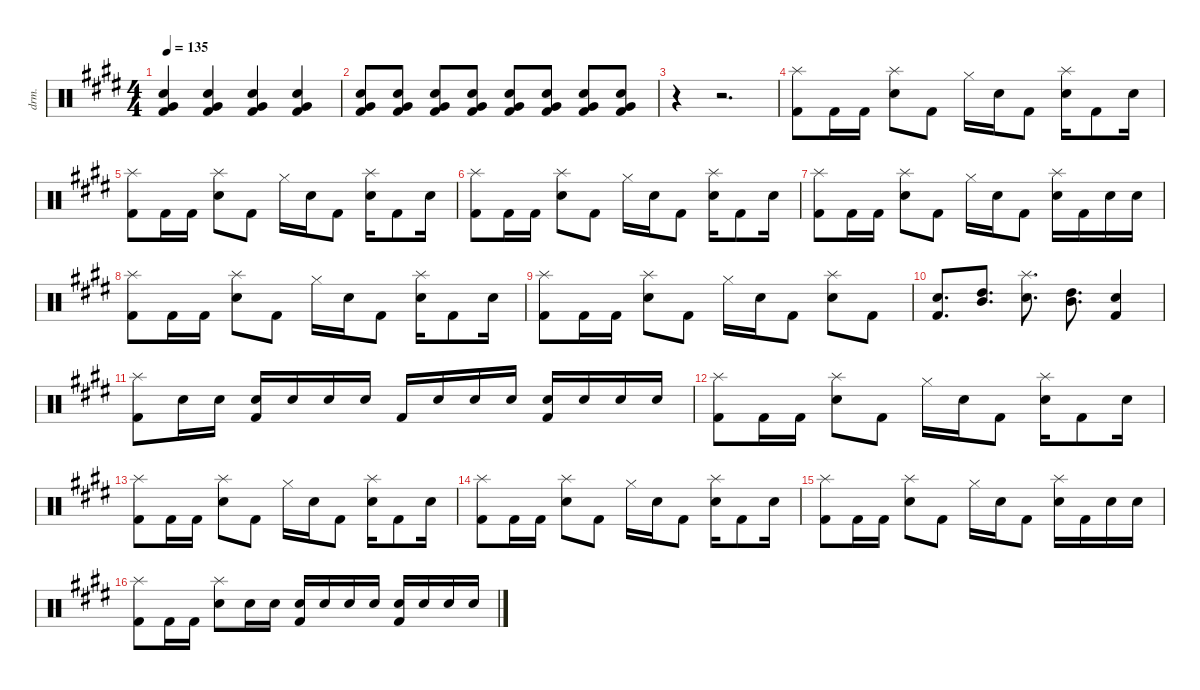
\defaultSystemsLayout 4
\hideDynamics
\bracketExtendMode nobrackets
\track ("Drumkit" "drm.") {instrument percussion}
\staff {score}
\articulation defaults
\ts (4 4)
\tempo 135
\clef neutral
\ks e
("Snare (hit) 2"{acc forcenatural} "Very Low Tom (hit)"{acc forcenatural} "Kick (hit) 2"{acc forcenatural}).4{dy mf} ("Snare (hit) 2"{acc forcenatural} "Very Low Tom (hit)"{acc forcenatural} "Kick (hit) 2"{acc forcenatural}).4 ("Snare (hit) 2"{acc forcenatural} "Very Low Tom (hit)"{acc forcenatural} "Kick (hit) 2"{acc forcenatural}).4 ("Snare (hit) 2"{acc forcenatural} "Very Low Tom (hit)"{acc forcenatural} "Kick (hit) 2"{acc forcenatural}).4 |
("Snare (hit) 2"{acc forcenatural} "Very Low Tom (hit)"{acc forcenatural} "Kick (hit) 2"{acc forcenatural}).8 ("Snare (hit) 2"{acc forcenatural} "Very Low Tom (hit)"{acc forcenatural} "Kick (hit) 2"{acc forcenatural}).8 ("Snare (hit) 2"{acc forcenatural} "Very Low Tom (hit)"{acc forcenatural} "Kick (hit) 2"{acc forcenatural}).8 ("Snare (hit) 2"{acc forcenatural} "Very Low Tom (hit)"{acc forcenatural} "Kick (hit) 2"{acc forcenatural}).8 ("Snare (hit) 2"{acc forcenatural} "Very Low Tom (hit)"{acc forcenatural} "Kick (hit) 2"{acc forcenatural}).8 ("Snare (hit) 2"{acc forcenatural} "Very Low Tom (hit)"{acc forcenatural} "Kick (hit) 2"{acc forcenatural}).8 ("Snare (hit) 2"{acc forcenatural} "Very Low Tom (hit)"{acc forcenatural} "Kick (hit) 2"{acc forcenatural}).8 ("Snare (hit) 2"{acc forcenatural} "Very Low Tom (hit)"{acc forcenatural} "Kick (hit) 2"{acc forcenatural}).8 |
r.4 r.2{d} |
("Kick (hit) 2"{acc forcenatural} "Splash (hit)"{acc forcenatural}).8 "Kick (hit) 2"{acc forcenatural}.16 "Kick (hit) 2"{acc forcenatural}.16 ("Splash (hit)"{acc forcenatural} "Snare (hit) 2"{acc forcenatural}).8 "Kick (hit) 2"{acc forcenatural}.8 "Hi-Hat (closed)"{acc forcenatural}.16 "Snare (hit) 2"{acc forcenatural}.16 "Kick (hit) 2"{acc forcenatural}.8 ("Splash (hit)"{acc forcenatural} "Snare (hit) 2"{acc forcenatural}).16 "Kick (hit) 2"{acc forcenatural}.8 "Snare (hit) 2"{acc forcenatural}.16 |
("Kick (hit) 2"{acc forcenatural} "Splash (hit)"{acc forcenatural}).8 "Kick (hit) 2"{acc forcenatural}.16 "Kick (hit) 2"{acc forcenatural}.16 ("Splash (hit)"{acc forcenatural} "Snare (hit) 2"{acc forcenatural}).8 "Kick (hit) 2"{acc forcenatural}.8 "Hi-Hat (closed)"{acc forcenatural}.16 "Snare (hit) 2"{acc forcenatural}.16 "Kick (hit) 2"{acc forcenatural}.8 ("Splash (hit)"{acc forcenatural} "Snare (hit) 2"{acc forcenatural}).16 "Kick (hit) 2"{acc forcenatural}.8 "Snare (hit) 2"{acc forcenatural}.16 |
("Kick (hit) 2"{acc forcenatural} "Splash (hit)"{acc forcenatural}).8 "Kick (hit) 2"{acc forcenatural}.16 "Kick (hit) 2"{acc forcenatural}.16 ("Splash (hit)"{acc forcenatural} "Snare (hit) 2"{acc forcenatural}).8 "Kick (hit) 2"{acc forcenatural}.8 "Hi-Hat (closed)"{acc forcenatural}.16 "Snare (hit) 2"{acc forcenatural}.16 "Kick (hit) 2"{acc forcenatural}.8 ("Splash (hit)"{acc forcenatural} "Snare (hit) 2"{acc forcenatural}).16 "Kick (hit) 2"{acc forcenatural}.8 "Snare (hit) 2"{acc forcenatural}.16 |
("Kick (hit) 2"{acc forcenatural} "Splash (hit)"{acc forcenatural}).8 "Kick (hit) 2"{acc forcenatural}.16 "Kick (hit) 2"{acc forcenatural}.16 ("Splash (hit)"{acc forcenatural} "Snare (hit) 2"{acc forcenatural}).8 "Kick (hit) 2"{acc forcenatural}.8 "Hi-Hat (closed)"{acc forcenatural}.16 "Snare (hit) 2"{acc forcenatural}.16 "Kick (hit) 2"{acc forcenatural}.8 ("Splash (hit)"{acc forcenatural} "Snare (hit) 2"{acc forcenatural}).16 "Kick (hit) 2"{acc forcenatural}.16 "Snare (hit) 2"{acc forcenatural}.16 "Snare (hit) 2"{acc forcenatural}.16 |
("Kick (hit) 2"{acc forcenatural} "Splash (hit)"{acc forcenatural}).8 "Kick (hit) 2"{acc forcenatural}.16 "Kick (hit) 2"{acc forcenatural}.16 ("Splash (hit)"{acc forcenatural} "Snare (hit) 2"{acc forcenatural}).8 "Kick (hit) 2"{acc forcenatural}.8 "Hi-Hat (closed)"{acc forcenatural}.16 "Snare (hit) 2"{acc forcenatural}.16 "Kick (hit) 2"{acc forcenatural}.8 ("Splash (hit)"{acc forcenatural} "Snare (hit) 2"{acc forcenatural}).16 "Kick (hit) 2"{acc forcenatural}.8 "Snare (hit) 2"{acc forcenatural}.16 |
("Kick (hit) 2"{acc forcenatural} "Splash (hit)"{acc forcenatural}).8 "Kick (hit) 2"{acc forcenatural}.16 "Kick (hit) 2"{acc forcenatural}.16 ("Splash (hit)"{acc forcenatural} "Snare (hit) 2"{acc forcenatural}).8 "Kick (hit) 2"{acc forcenatural}.8 "Hi-Hat (closed)"{acc forcenatural}.16 "Snare (hit) 2"{acc forcenatural}.16 "Kick (hit) 2"{acc forcenatural}.8 ("Splash (hit)"{acc forcenatural} "Snare (hit) 2"{acc forcenatural}).8 "Kick (hit) 2"{acc forcenatural}.8 |
("Kick (hit) 2"{acc forcenatural} "Snare (hit) 2"{acc forcenatural}).8{d} ("Mid Tom (hit)"{acc forcenatural} "High Tom (hit)"{acc forcenatural}).8{d} ("Splash (hit)"{acc forcenatural} "Snare (hit) 2"{acc forcenatural}).8{d} ("Mid Tom (hit)"{acc forcenatural} "High Tom (hit)"{acc forcenatural}).8{d} ("Kick (hit) 2"{acc forcenatural} "Snare (hit) 2"{acc forcenatural}).4 |
("Kick (hit) 2"{acc forcenatural} "Splash (hit)"{acc forcenatural}).8 "Snare (hit) 2"{acc forcenatural}.16 "Snare (hit) 2"{acc forcenatural}.16 ("Snare (hit) 2"{acc forcenatural} "Kick (hit) 2"{acc forcenatural}).16 "Snare (hit) 2"{acc forcenatural}.16 "Snare (hit) 2"{acc forcenatural}.16 "Snare (hit) 2"{acc forcenatural}.16 "Kick (hit) 2"{acc forcenatural}.16 "Snare (hit) 2"{acc forcenatural}.16 "Snare (hit) 2"{acc forcenatural}.16 "Snare (hit) 2"{acc forcenatural}.16 ("Kick (hit) 2"{acc forcenatural} "Snare (hit) 2"{acc forcenatural}).16 "Snare (hit) 2"{acc forcenatural}.16 "Snare (hit) 2"{acc forcenatural}.16 "Snare (hit) 2"{acc forcenatural}.16 |
("Kick (hit) 2"{acc forcenatural} "Splash (hit)"{acc forcenatural}).8 "Kick (hit) 2"{acc forcenatural}.16 "Kick (hit) 2"{acc forcenatural}.16 ("Splash (hit)"{acc forcenatural} "Snare (hit) 2"{acc forcenatural}).8 "Kick (hit) 2"{acc forcenatural}.8 "Hi-Hat (closed)"{acc forcenatural}.16 "Snare (hit) 2"{acc forcenatural}.16 "Kick (hit) 2"{acc forcenatural}.8 ("Splash (hit)"{acc forcenatural} "Snare (hit) 2"{acc forcenatural}).16 "Kick (hit) 2"{acc forcenatural}.8 "Snare (hit) 2"{acc forcenatural}.16 |
("Kick (hit) 2"{acc forcenatural} "Splash (hit)"{acc forcenatural}).8 "Kick (hit) 2"{acc forcenatural}.16 "Kick (hit) 2"{acc forcenatural}.16 ("Splash (hit)"{acc forcenatural} "Snare (hit) 2"{acc forcenatural}).8 "Kick (hit) 2"{acc forcenatural}.8 "Hi-Hat (closed)"{acc forcenatural}.16 "Snare (hit) 2"{acc forcenatural}.16 "Kick (hit) 2"{acc forcenatural}.8 ("Splash (hit)"{acc forcenatural} "Snare (hit) 2"{acc forcenatural}).16 "Kick (hit) 2"{acc forcenatural}.8 "Snare (hit) 2"{acc forcenatural}.16 |
("Kick (hit) 2"{acc forcenatural} "Splash (hit)"{acc forcenatural}).8 "Kick (hit) 2"{acc forcenatural}.16 "Kick (hit) 2"{acc forcenatural}.16 ("Splash (hit)"{acc forcenatural} "Snare (hit) 2"{acc forcenatural}).8 "Kick (hit) 2"{acc forcenatural}.8 "Hi-Hat (closed)"{acc forcenatural}.16 "Snare (hit) 2"{acc forcenatural}.16 "Kick (hit) 2"{acc forcenatural}.8 ("Splash (hit)"{acc forcenatural} "Snare (hit) 2"{acc forcenatural}).16 "Kick (hit) 2"{acc forcenatural}.8 "Snare (hit) 2"{acc forcenatural}.16 |
("Kick (hit) 2"{acc forcenatural} "Splash (hit)"{acc forcenatural}).8 "Kick (hit) 2"{acc forcenatural}.16 "Kick (hit) 2"{acc forcenatural}.16 ("Splash (hit)"{acc forcenatural} "Snare (hit) 2"{acc forcenatural}).8 "Kick (hit) 2"{acc forcenatural}.8 "Hi-Hat (closed)"{acc forcenatural}.16 "Snare (hit) 2"{acc forcenatural}.16 "Kick (hit) 2"{acc forcenatural}.8 ("Splash (hit)"{acc forcenatural} "Snare (hit) 2"{acc forcenatural}).16 "Kick (hit) 2"{acc forcenatural}.16 "Snare (hit) 2"{acc forcenatural}.16 "Snare (hit) 2"{acc forcenatural}.16 |
("Kick (hit) 2"{acc forcenatural} "Splash (hit)"{acc forcenatural}).8 "Kick (hit) 2"{acc forcenatural}.16 "Kick (hit) 2"{acc forcenatural}.16 ("Splash (hit)"{acc forcenatural} "Snare (hit) 2"{acc forcenatural}).8 "Snare (hit) 2"{acc forcenatural}.16 "Snare (hit) 2"{acc forcenatural}.16 ("Snare (hit) 2"{acc forcenatural} "Kick (hit) 2"{acc forcenatural}).16 "Snare (hit) 2"{acc forcenatural}.16 "Snare (hit) 2"{acc forcenatural}.16 "Snare (hit) 2"{acc forcenatural}.16 ("Snare (hit) 2"{acc forcenatural} "Kick (hit) 2"{acc forcenatural}).16 "Snare (hit) 2"{acc forcenatural}.16 "Snare (hit) 2"{acc forcenatural}.16 "Snare (hit) 2"{acc forcenatural}.16
